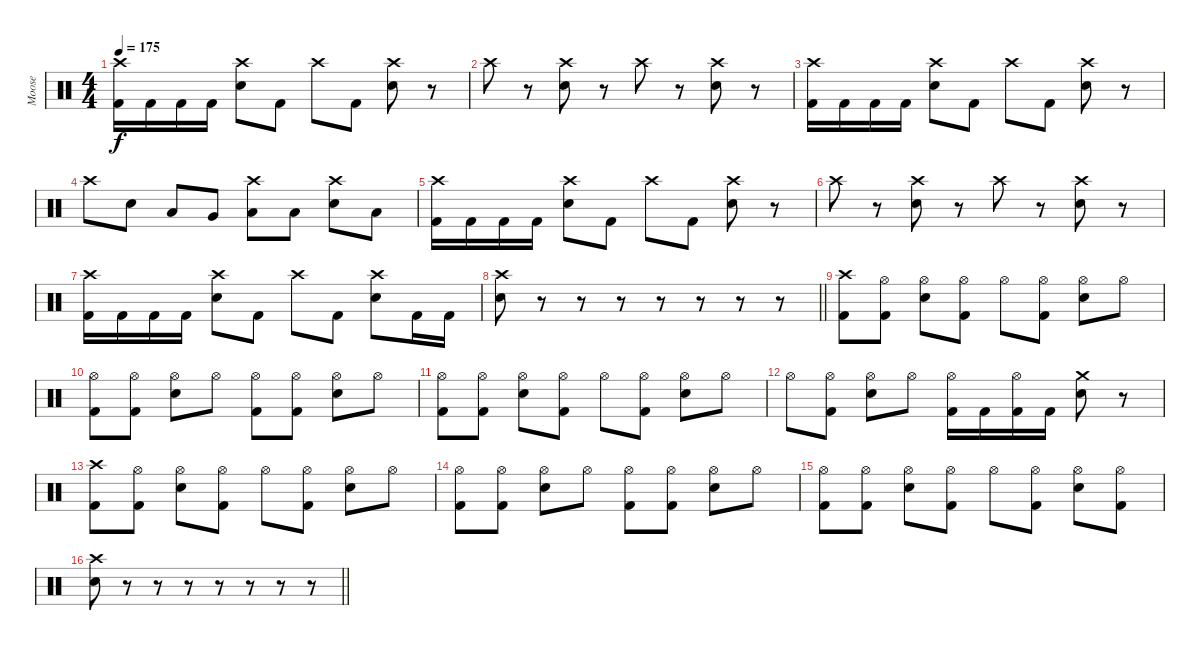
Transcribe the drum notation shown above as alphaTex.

\track ("Moose" "Moose") {instrument percussion}
\staff {score}
\articulation defaults
\ts (4 4)
\tempo 175
\clef neutral
\ks c
("Crash high (hit)" "Kick (hit) 2").16{dy f} "Kick (hit) 2".16 "Kick (hit) 2".16 "Kick (hit) 2".16 ("Crash high (hit)" "Electric Snare (hit)").8 "Kick (hit) 2".8 "Crash high (hit)".8 "Kick (hit) 2".8 ("Crash high (hit)" "Electric Snare (hit)").8 r.8 |
"Crash high (hit)".8 r.8 ("Crash high (hit)" "Electric Snare (hit)").8 r.8 "Crash high (hit)".8 r.8 ("Crash high (hit)" "Electric Snare (hit)").8 r.8 |
("Crash high (hit)" "Kick (hit) 2").16 "Kick (hit) 2".16 "Kick (hit) 2".16 "Kick (hit) 2".16 ("Crash high (hit)" "Electric Snare (hit)").8 "Kick (hit) 2".8 "Crash high (hit)".8 "Kick (hit) 2".8 ("Crash high (hit)" "Electric Snare (hit)").8 r.8 |
"Crash high (hit)".8 "Electric Snare (hit)".8 "Low Tom (hit)".8 "Very Low Tom (hit)".8 ("Crash high (hit)" "Low Floor Tom (hit)").8 "Low Floor Tom (hit)".8 ("Crash high (hit)" "Electric Snare (hit)").8 "Low Floor Tom (hit)".8 |
("Crash high (hit)" "Kick (hit) 2").16 "Kick (hit) 2".16 "Kick (hit) 2".16 "Kick (hit) 2".16 ("Crash high (hit)" "Electric Snare (hit)").8 "Kick (hit) 2".8 "Crash high (hit)".8 "Kick (hit) 2".8 ("Crash high (hit)" "Electric Snare (hit)").8 r.8 |
"Crash high (hit)".8 r.8 ("Crash high (hit)" "Electric Snare (hit)").8 r.8 "Crash high (hit)".8 r.8 ("Crash high (hit)" "Electric Snare (hit)").8 r.8 |
("Crash high (hit)" "Kick (hit) 2").16 "Kick (hit) 2".16 "Kick (hit) 2".16 "Kick (hit) 2".16 ("Crash high (hit)" "Electric Snare (hit)").8 "Kick (hit) 2".8 "Crash high (hit)".8 "Kick (hit) 2".8 ("Crash high (hit)" "Electric Snare (hit)").8 "Kick (hit) 2".16 "Kick (hit) 2".16 |
\barLineRight lightlight
("Crash high (hit)" "Electric Snare (hit)").8 r.8 r.8 r.8 r.8 r.8 r.8 r.8 |
("Crash high (hit)" "Kick (hit) 2").8 ("Hi-Hat (open)" "Kick (hit) 2").8 ("Hi-Hat (open)" "Electric Snare (hit)").8 ("Hi-Hat (open)" "Kick (hit) 2").8 "Hi-Hat (open)".8 ("Hi-Hat (open)" "Kick (hit) 2").8 ("Hi-Hat (open)" "Electric Snare (hit)").8 "Hi-Hat (open)".8 |
("Hi-Hat (open)" "Kick (hit) 2").8 ("Hi-Hat (open)" "Kick (hit) 2").8 ("Hi-Hat (open)" "Electric Snare (hit)").8 "Hi-Hat (open)".8 ("Hi-Hat (open)" "Kick (hit) 2").8 ("Hi-Hat (open)" "Kick (hit) 2").8 ("Hi-Hat (open)" "Electric Snare (hit)").8 "Hi-Hat (open)".8 |
("Hi-Hat (open)" "Kick (hit) 2").8 ("Hi-Hat (open)" "Kick (hit) 2").8 ("Hi-Hat (open)" "Electric Snare (hit)").8 ("Hi-Hat (open)" "Kick (hit) 2").8 "Hi-Hat (open)".8 ("Hi-Hat (open)" "Kick (hit) 2").8 ("Hi-Hat (open)" "Electric Snare (hit)").8 "Hi-Hat (open)".8 |
"Hi-Hat (open)".8 ("Hi-Hat (open)" "Kick (hit) 2").8 ("Hi-Hat (open)" "Electric Snare (hit)").8 "Hi-Hat (open)".8 ("Hi-Hat (open)" "Kick (hit) 2").16 "Kick (hit) 2".16 ("Hi-Hat (open)" "Kick (hit) 2").16 "Kick (hit) 2".16 ("Crash medium (hit)" "Electric Snare (hit)").8 r.8 |
("Crash high (hit)" "Kick (hit) 2").8 ("Hi-Hat (open)" "Kick (hit) 2").8 ("Hi-Hat (open)" "Electric Snare (hit)").8 ("Hi-Hat (open)" "Kick (hit) 2").8 "Hi-Hat (open)".8 ("Hi-Hat (open)" "Kick (hit) 2").8 ("Hi-Hat (open)" "Electric Snare (hit)").8 "Hi-Hat (open)".8 |
("Hi-Hat (open)" "Kick (hit) 2").8 ("Hi-Hat (open)" "Kick (hit) 2").8 ("Hi-Hat (open)" "Electric Snare (hit)").8 "Hi-Hat (open)".8 ("Hi-Hat (open)" "Kick (hit) 2").8 ("Hi-Hat (open)" "Kick (hit) 2").8 ("Hi-Hat (open)" "Electric Snare (hit)").8 "Hi-Hat (open)".8 |
("Hi-Hat (open)" "Kick (hit) 2").8 ("Hi-Hat (open)" "Kick (hit) 2").8 ("Hi-Hat (open)" "Electric Snare (hit)").8 ("Hi-Hat (open)" "Kick (hit) 2").8 "Hi-Hat (open)".8 ("Hi-Hat (open)" "Kick (hit) 2").8 ("Hi-Hat (open)" "Electric Snare (hit)").8 ("Hi-Hat (open)" "Kick (hit) 2").8 |
\barLineRight lightlight
("Crash high (hit)" "Electric Snare (hit)").8 r.8 r.8 r.8 r.8 r.8 r.8 r.8
